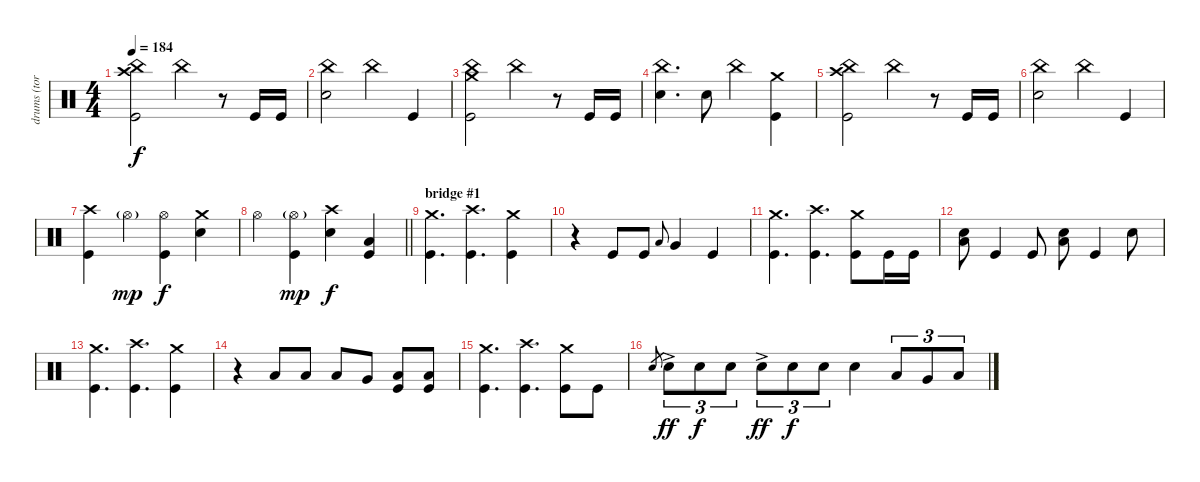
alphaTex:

\track ("drums (tora)" "drums (tor") {instrument percussion}
\staff {score}
\articulation defaults
\ts (4 4)
\tempo 184
\clef neutral
\ks c
("Crash high (hit)" "China (hit)" "Kick (hit)").2{dy f} "China (hit)".4 r.8 "Kick (hit)".16 "Kick (hit)".16 |
("China (hit)" "Snare (hit) 2").2 "China (hit)".4 "Kick (hit)".4 |
("Crash medium (hit)" "China (hit)" "Kick (hit)").2 "China (hit)".4 r.8 "Kick (hit)".16 "Kick (hit)".16 |
("China (hit)" "Snare (hit) 2").4{d} "Snare (hit) 2".8 "China (hit)".4 ("Crash medium (hit)" "Kick (hit)").4 |
("Crash high (hit)" "China (hit)" "Kick (hit)").2 "China (hit)".4 r.8 "Kick (hit)".16 "Kick (hit)".16 |
("China (hit)" "Snare (hit) 2").2 "China (hit)".4 "Kick (hit)".4 |
("Crash high (hit)" "Kick (hit)").4 "Hi-Hat (open)"{g}.4{dy mp} ("Hi-Hat (open)" "Kick (hit)").4{dy f} ("Crash medium (hit)" "Snare (hit) 2").4 |
\barLineRight lightlight "Hi-Hat (open)".4
("Hi-Hat (open)"{g} "Kick (hit)").4{dy mp} ("Crash high (hit)" "Snare (hit) 2").4{dy f} ("Low Floor Tom (hit)" "Kick (hit)").4 |
\section ("" "bridge #1")
("Crash medium (hit)" "Kick (hit)").4{d} ("Crash high (hit)" "Kick (hit)").4{d} ("Crash medium (hit)" "Kick (hit)").4 |
r.4 "Kick (hit)".8 "Kick (hit)".8 "Low Tom (hit)".8{gr onbeat} "Very Low Tom (hit)".4 "Kick (hit)".4 |
("Crash medium (hit)" "Kick (hit)").4{d} ("Crash high (hit)" "Kick (hit)").4{d} ("Crash medium (hit)" "Kick (hit)").8 "Kick (hit)".16 "Kick (hit)".16 |
("Low Tom (hit)" "Snare (hit) 2").8 "Kick (hit)".4 "Kick (hit)".8 ("Low Tom (hit)" "Snare (hit) 2").8 "Kick (hit)".4 "Snare (hit) 2".8 |
("Crash medium (hit)" "Kick (hit)").4{d} ("Crash high (hit)" "Kick (hit)").4{d} ("Crash medium (hit)" "Kick (hit)").4 |
r.4 "Low Tom (hit)".8 "Low Tom (hit)".8 "Low Tom (hit)".8 "Very Low Tom (hit)".8 ("Low Floor Tom (hit)" "Kick (hit)").8 ("Low Floor Tom (hit)" "Kick (hit)").8 |
("Crash medium (hit)" "Kick (hit)").4{d} ("Crash high (hit)" "Kick (hit)").4{d} ("Crash medium (hit)" "Kick (hit)").8 "Kick (hit)".8 |
"Snare (hit) 2".8{gr} "Snare (hit) 2"{ac}.8{tu (3 2) dy ff} "Snare (hit) 2".8{tu (3 2) dy f} "Snare (hit) 2".8{tu (3 2)} "Snare (hit) 2"{ac}.8{tu (3 2) dy ff} "Snare (hit) 2".8{tu (3 2) dy f} "Snare (hit) 2".8{tu (3 2)} "Snare (hit) 2".4 "Low Tom (hit)".8{tu (3 2)} "Very Low Tom (hit)".8{tu (3 2)} "Low Floor Tom (hit)".8{tu (3 2)}
